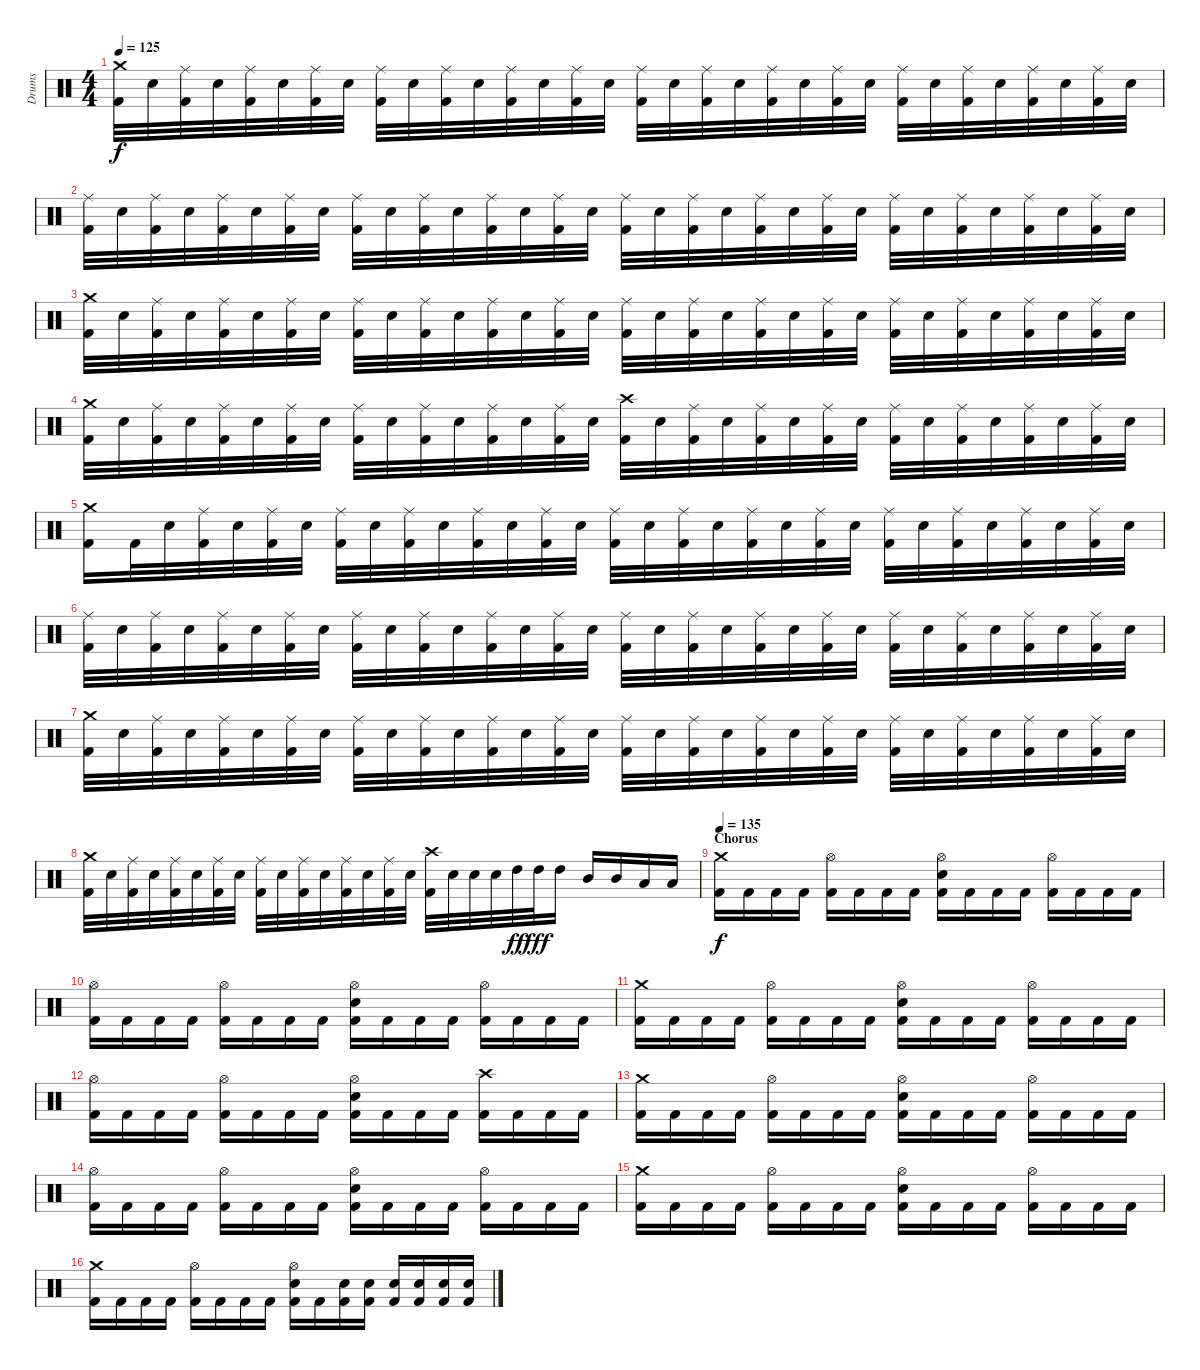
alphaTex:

\track ("Drums" "Drums") {instrument percussion}
\staff {score}
\articulation defaults
\ts (4 4)
\tempo 125
\clef neutral
\ks c
("Kick (hit) 2" "Crash medium (hit)").32{dy f} "Electric Snare (hit)".32 ("Kick (hit) 2" "Ride (middle)").32 "Electric Snare (hit)".32 ("Kick (hit) 2" "Ride (middle)").32 "Electric Snare (hit)".32 ("Kick (hit) 2" "Ride (middle)").32 "Electric Snare (hit)".32 ("Kick (hit) 2" "Ride (middle)").32 "Electric Snare (hit)".32 ("Kick (hit) 2" "Ride (middle)").32 "Electric Snare (hit)".32 ("Kick (hit) 2" "Ride (middle)").32 "Electric Snare (hit)".32 ("Kick (hit) 2" "Ride (middle)").32 "Electric Snare (hit)".32 ("Kick (hit) 2" "Ride (middle)").32 "Electric Snare (hit)".32 ("Kick (hit) 2" "Ride (middle)").32 "Electric Snare (hit)".32 ("Kick (hit) 2" "Ride (middle)").32 "Electric Snare (hit)".32 ("Kick (hit) 2" "Ride (middle)").32 "Electric Snare (hit)".32 ("Kick (hit) 2" "Ride (middle)").32 "Electric Snare (hit)".32 ("Kick (hit) 2" "Ride (middle)").32 "Electric Snare (hit)".32 ("Kick (hit) 2" "Ride (middle)").32 "Electric Snare (hit)".32 ("Kick (hit) 2" "Ride (middle)").32 "Electric Snare (hit)".32 |
("Kick (hit) 2" "Ride (middle)").32 "Electric Snare (hit)".32 ("Kick (hit) 2" "Ride (middle)").32 "Electric Snare (hit)".32 ("Kick (hit) 2" "Ride (middle)").32 "Electric Snare (hit)".32 ("Kick (hit) 2" "Ride (middle)").32 "Electric Snare (hit)".32 ("Kick (hit) 2" "Ride (middle)").32 "Electric Snare (hit)".32 ("Kick (hit) 2" "Ride (middle)").32 "Electric Snare (hit)".32 ("Kick (hit) 2" "Ride (middle)").32 "Electric Snare (hit)".32 ("Kick (hit) 2" "Ride (middle)").32 "Electric Snare (hit)".32 ("Kick (hit) 2" "Ride (middle)").32 "Electric Snare (hit)".32 ("Kick (hit) 2" "Ride (middle)").32 "Electric Snare (hit)".32 ("Kick (hit) 2" "Ride (middle)").32 "Electric Snare (hit)".32 ("Kick (hit) 2" "Ride (middle)").32 "Electric Snare (hit)".32 ("Kick (hit) 2" "Ride (middle)").32 "Electric Snare (hit)".32 ("Kick (hit) 2" "Ride (middle)").32 "Electric Snare (hit)".32 ("Kick (hit) 2" "Ride (middle)").32 "Electric Snare (hit)".32 ("Kick (hit) 2" "Ride (middle)").32 "Electric Snare (hit)".32 |
("Kick (hit) 2" "Crash medium (hit)").32 "Electric Snare (hit)".32 ("Kick (hit) 2" "Ride (middle)").32 "Electric Snare (hit)".32 ("Kick (hit) 2" "Ride (middle)").32 "Electric Snare (hit)".32 ("Kick (hit) 2" "Ride (middle)").32 "Electric Snare (hit)".32 ("Kick (hit) 2" "Ride (middle)").32 "Electric Snare (hit)".32 ("Kick (hit) 2" "Ride (middle)").32 "Electric Snare (hit)".32 ("Kick (hit) 2" "Ride (middle)").32 "Electric Snare (hit)".32 ("Kick (hit) 2" "Ride (middle)").32 "Electric Snare (hit)".32 ("Kick (hit) 2" "Ride (middle)").32 "Electric Snare (hit)".32 ("Kick (hit) 2" "Ride (middle)").32 "Electric Snare (hit)".32 ("Kick (hit) 2" "Ride (middle)").32 "Electric Snare (hit)".32 ("Kick (hit) 2" "Ride (middle)").32 "Electric Snare (hit)".32 ("Kick (hit) 2" "Ride (middle)").32 "Electric Snare (hit)".32 ("Kick (hit) 2" "Ride (middle)").32 "Electric Snare (hit)".32 ("Kick (hit) 2" "Ride (middle)").32 "Electric Snare (hit)".32 ("Kick (hit) 2" "Ride (middle)").32 "Electric Snare (hit)".32 |
("Kick (hit) 2" "Crash medium (hit)").32 "Electric Snare (hit)".32 ("Kick (hit) 2" "Ride (middle)").32 "Electric Snare (hit)".32 ("Kick (hit) 2" "Ride (middle)").32 "Electric Snare (hit)".32 ("Kick (hit) 2" "Ride (middle)").32 "Electric Snare (hit)".32 ("Kick (hit) 2" "Ride (middle)").32 "Electric Snare (hit)".32 ("Kick (hit) 2" "Ride (middle)").32 "Electric Snare (hit)".32 ("Kick (hit) 2" "Ride (middle)").32 "Electric Snare (hit)".32 ("Kick (hit) 2" "Ride (middle)").32 "Electric Snare (hit)".32 ("Kick (hit) 2" "Crash high (hit)").32 "Electric Snare (hit)".32 ("Kick (hit) 2" "Ride (middle)").32 "Electric Snare (hit)".32 ("Kick (hit) 2" "Ride (middle)").32 "Electric Snare (hit)".32 ("Kick (hit) 2" "Ride (middle)").32 "Electric Snare (hit)".32 ("Kick (hit) 2" "Ride (middle)").32 "Electric Snare (hit)".32 ("Kick (hit) 2" "Ride (middle)").32 "Electric Snare (hit)".32 ("Kick (hit) 2" "Ride (middle)").32 "Electric Snare (hit)".32 ("Kick (hit) 2" "Ride (middle)").32 "Electric Snare (hit)".32 |
("Kick (hit) 2" "Crash medium (hit)").16 "Kick (hit) 2".32 "Electric Snare (hit)".32 ("Kick (hit) 2" "Ride (middle)").32 "Electric Snare (hit)".32 ("Kick (hit) 2" "Ride (middle)").32 "Electric Snare (hit)".32 ("Kick (hit) 2" "Ride (middle)").32 "Electric Snare (hit)".32 ("Kick (hit) 2" "Ride (middle)").32 "Electric Snare (hit)".32 ("Kick (hit) 2" "Ride (middle)").32 "Electric Snare (hit)".32 ("Kick (hit) 2" "Ride (middle)").32 "Electric Snare (hit)".32 ("Kick (hit) 2" "Ride (middle)").32 "Electric Snare (hit)".32 ("Kick (hit) 2" "Ride (middle)").32 "Electric Snare (hit)".32 ("Kick (hit) 2" "Ride (middle)").32 "Electric Snare (hit)".32 ("Kick (hit) 2" "Ride (middle)").32 "Electric Snare (hit)".32 ("Kick (hit) 2" "Ride (middle)").32 "Electric Snare (hit)".32 ("Kick (hit) 2" "Ride (middle)").32 "Electric Snare (hit)".32 ("Kick (hit) 2" "Ride (middle)").32 "Electric Snare (hit)".32 ("Kick (hit) 2" "Ride (middle)").32 "Electric Snare (hit)".32 |
("Kick (hit) 2" "Ride (middle)").32 "Electric Snare (hit)".32 ("Kick (hit) 2" "Ride (middle)").32 "Electric Snare (hit)".32 ("Kick (hit) 2" "Ride (middle)").32 "Electric Snare (hit)".32 ("Kick (hit) 2" "Ride (middle)").32 "Electric Snare (hit)".32 ("Kick (hit) 2" "Ride (middle)").32 "Electric Snare (hit)".32 ("Kick (hit) 2" "Ride (middle)").32 "Electric Snare (hit)".32 ("Kick (hit) 2" "Ride (middle)").32 "Electric Snare (hit)".32 ("Kick (hit) 2" "Ride (middle)").32 "Electric Snare (hit)".32 ("Kick (hit) 2" "Ride (middle)").32 "Electric Snare (hit)".32 ("Kick (hit) 2" "Ride (middle)").32 "Electric Snare (hit)".32 ("Kick (hit) 2" "Ride (middle)").32 "Electric Snare (hit)".32 ("Kick (hit) 2" "Ride (middle)").32 "Electric Snare (hit)".32 ("Kick (hit) 2" "Ride (middle)").32 "Electric Snare (hit)".32 ("Kick (hit) 2" "Ride (middle)").32 "Electric Snare (hit)".32 ("Kick (hit) 2" "Ride (middle)").32 "Electric Snare (hit)".32 ("Kick (hit) 2" "Ride (middle)").32 "Electric Snare (hit)".32 |
("Kick (hit) 2" "Crash medium (hit)").32 "Electric Snare (hit)".32 ("Kick (hit) 2" "Ride (middle)").32 "Electric Snare (hit)".32 ("Kick (hit) 2" "Ride (middle)").32 "Electric Snare (hit)".32 ("Kick (hit) 2" "Ride (middle)").32 "Electric Snare (hit)".32 ("Kick (hit) 2" "Ride (middle)").32 "Electric Snare (hit)".32 ("Kick (hit) 2" "Ride (middle)").32 "Electric Snare (hit)".32 ("Kick (hit) 2" "Ride (middle)").32 "Electric Snare (hit)".32 ("Kick (hit) 2" "Ride (middle)").32 "Electric Snare (hit)".32 ("Kick (hit) 2" "Ride (middle)").32 "Electric Snare (hit)".32 ("Kick (hit) 2" "Ride (middle)").32 "Electric Snare (hit)".32 ("Kick (hit) 2" "Ride (middle)").32 "Electric Snare (hit)".32 ("Kick (hit) 2" "Ride (middle)").32 "Electric Snare (hit)".32 ("Kick (hit) 2" "Ride (middle)").32 "Electric Snare (hit)".32 ("Kick (hit) 2" "Ride (middle)").32 "Electric Snare (hit)".32 ("Kick (hit) 2" "Ride (middle)").32 "Electric Snare (hit)".32 ("Kick (hit) 2" "Ride (middle)").32 "Electric Snare (hit)".32 |
("Kick (hit) 2" "Crash medium (hit)").32 "Electric Snare (hit)".32 ("Kick (hit) 2" "Ride (middle)").32 "Electric Snare (hit)".32 ("Kick (hit) 2" "Ride (middle)").32 "Electric Snare (hit)".32 ("Kick (hit) 2" "Ride (middle)").32 "Electric Snare (hit)".32 ("Kick (hit) 2" "Ride (middle)").32 "Electric Snare (hit)".32 ("Kick (hit) 2" "Ride (middle)").32 "Electric Snare (hit)".32 ("Kick (hit) 2" "Ride (middle)").32 "Electric Snare (hit)".32 ("Kick (hit) 2" "Ride (middle)").32 "Electric Snare (hit)".32 ("Kick (hit) 2" "Crash high (hit)").32 "Electric Snare (hit)".32 "Electric Snare (hit)".32 "Electric Snare (hit)".32 "High Tom (hit)".32{dy ff} "High Tom (hit)".32{dy fff} "High Tom (hit)".16 "Mid Tom (hit)".16 "Mid Tom (hit)".16 "Low Tom (hit)".16 "Low Tom (hit)".16 |
\section ("" "Chorus")
\tempo 135
("Kick (hit) 2" "Crash medium (hit)").16{dy f} "Kick (hit) 2".16 "Kick (hit) 2".16 "Kick (hit) 2".16 ("Kick (hit) 2" "Hi-Hat (open)").16 "Kick (hit) 2".16 "Kick (hit) 2".16 "Kick (hit) 2".16 ("Kick (hit) 2" "Electric Snare (hit)" "Hi-Hat (open)").16 "Kick (hit) 2".16 "Kick (hit) 2".16 "Kick (hit) 2".16 ("Kick (hit) 2" "Hi-Hat (open)").16 "Kick (hit) 2".16 "Kick (hit) 2".16 "Kick (hit) 2".16 |
("Kick (hit) 2" "Hi-Hat (open)").16 "Kick (hit) 2".16 "Kick (hit) 2".16 "Kick (hit) 2".16 ("Kick (hit) 2" "Hi-Hat (open)").16 "Kick (hit) 2".16 "Kick (hit) 2".16 "Kick (hit) 2".16 ("Kick (hit) 2" "Electric Snare (hit)" "Hi-Hat (open)").16 "Kick (hit) 2".16 "Kick (hit) 2".16 "Kick (hit) 2".16 ("Kick (hit) 2" "Hi-Hat (open)").16 "Kick (hit) 2".16 "Kick (hit) 2".16 "Kick (hit) 2".16 |
("Kick (hit) 2" "Crash medium (hit)").16 "Kick (hit) 2".16 "Kick (hit) 2".16 "Kick (hit) 2".16 ("Kick (hit) 2" "Hi-Hat (open)").16 "Kick (hit) 2".16 "Kick (hit) 2".16 "Kick (hit) 2".16 ("Kick (hit) 2" "Electric Snare (hit)" "Hi-Hat (open)").16 "Kick (hit) 2".16 "Kick (hit) 2".16 "Kick (hit) 2".16 ("Kick (hit) 2" "Hi-Hat (open)").16 "Kick (hit) 2".16 "Kick (hit) 2".16 "Kick (hit) 2".16 |
("Kick (hit) 2" "Hi-Hat (open)").16 "Kick (hit) 2".16 "Kick (hit) 2".16 "Kick (hit) 2".16 ("Kick (hit) 2" "Hi-Hat (open)").16 "Kick (hit) 2".16 "Kick (hit) 2".16 "Kick (hit) 2".16 ("Kick (hit) 2" "Electric Snare (hit)" "Hi-Hat (open)").16 "Kick (hit) 2".16 "Kick (hit) 2".16 "Kick (hit) 2".16 ("Kick (hit) 2" "Crash high (hit)").16 "Kick (hit) 2".16 "Kick (hit) 2".16 "Kick (hit) 2".16 |
("Kick (hit) 2" "Crash medium (hit)").16 "Kick (hit) 2".16 "Kick (hit) 2".16 "Kick (hit) 2".16 ("Kick (hit) 2" "Hi-Hat (open)").16 "Kick (hit) 2".16 "Kick (hit) 2".16 "Kick (hit) 2".16 ("Kick (hit) 2" "Electric Snare (hit)" "Hi-Hat (open)").16 "Kick (hit) 2".16 "Kick (hit) 2".16 "Kick (hit) 2".16 ("Kick (hit) 2" "Hi-Hat (open)").16 "Kick (hit) 2".16 "Kick (hit) 2".16 "Kick (hit) 2".16 |
("Kick (hit) 2" "Hi-Hat (open)").16 "Kick (hit) 2".16 "Kick (hit) 2".16 "Kick (hit) 2".16 ("Kick (hit) 2" "Hi-Hat (open)").16 "Kick (hit) 2".16 "Kick (hit) 2".16 "Kick (hit) 2".16 ("Kick (hit) 2" "Electric Snare (hit)" "Hi-Hat (open)").16 "Kick (hit) 2".16 "Kick (hit) 2".16 "Kick (hit) 2".16 ("Kick (hit) 2" "Hi-Hat (open)").16 "Kick (hit) 2".16 "Kick (hit) 2".16 "Kick (hit) 2".16 |
("Kick (hit) 2" "Crash medium (hit)").16 "Kick (hit) 2".16 "Kick (hit) 2".16 "Kick (hit) 2".16 ("Kick (hit) 2" "Hi-Hat (open)").16 "Kick (hit) 2".16 "Kick (hit) 2".16 "Kick (hit) 2".16 ("Kick (hit) 2" "Electric Snare (hit)" "Hi-Hat (open)").16 "Kick (hit) 2".16 "Kick (hit) 2".16 "Kick (hit) 2".16 ("Kick (hit) 2" "Hi-Hat (open)").16 "Kick (hit) 2".16 "Kick (hit) 2".16 "Kick (hit) 2".16 |
("Kick (hit) 2" "Crash medium (hit)").16 "Kick (hit) 2".16 "Kick (hit) 2".16 "Kick (hit) 2".16 ("Kick (hit) 2" "Hi-Hat (open)").16 "Kick (hit) 2".16 "Kick (hit) 2".16 "Kick (hit) 2".16 ("Kick (hit) 2" "Electric Snare (hit)" "Hi-Hat (open)").16 "Kick (hit) 2".16 ("Kick (hit) 2" "Electric Snare (hit)").16 ("Kick (hit) 2" "Electric Snare (hit)").16 ("Kick (hit) 2" "Electric Snare (hit)").16 ("Kick (hit) 2" "Electric Snare (hit)").16 ("Kick (hit) 2" "Electric Snare (hit)").16 ("Kick (hit) 2" "Electric Snare (hit)").16
